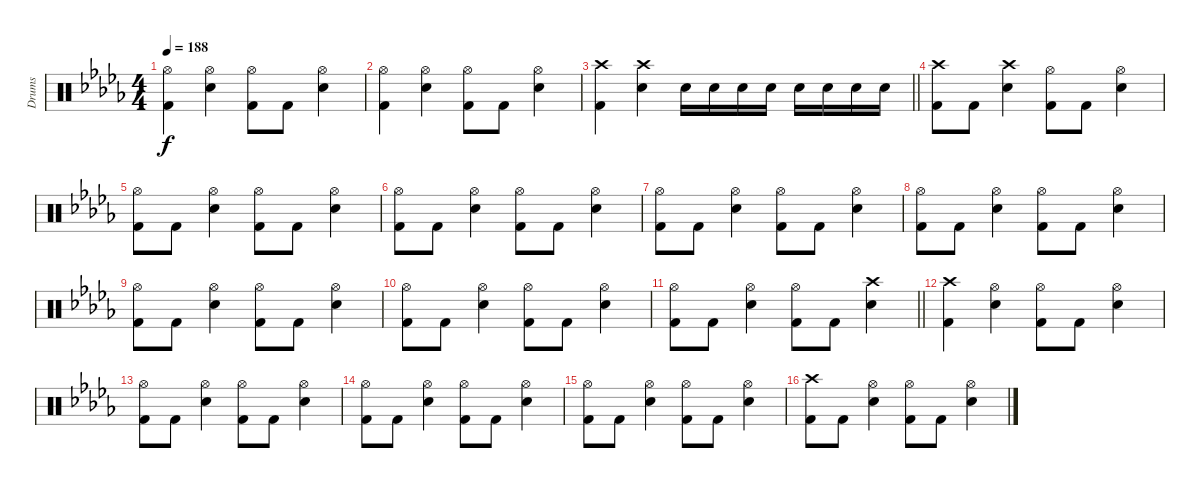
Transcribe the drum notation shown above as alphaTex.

\track ("Drums" "Drums") {instrument percussion}
\staff {score}
\articulation defaults
\ts (4 4)
\tempo 188
\clef neutral
\ks bbminor
("Hi-Hat (open)" "Kick (hit) 2").4{dy f} ("Hi-Hat (open)" "Electric Snare (hit)").4 ("Hi-Hat (open)" "Kick (hit) 2").8 "Kick (hit) 2".8 ("Hi-Hat (open)" "Electric Snare (hit)").4 |
("Hi-Hat (open)" "Kick (hit) 2").4 ("Hi-Hat (open)" "Electric Snare (hit)").4 ("Hi-Hat (open)" "Kick (hit) 2").8 "Kick (hit) 2".8 ("Hi-Hat (open)" "Electric Snare (hit)").4 |
\barLineRight lightlight
("Crash high (hit)" "Kick (hit) 2").4 ("Crash high (hit)" "Electric Snare (hit)").4 "Electric Snare (hit)".16 "Electric Snare (hit)".16 "Electric Snare (hit)".16 "Electric Snare (hit)".16 "Electric Snare (hit)".16 "Electric Snare (hit)".16 "Electric Snare (hit)".16 "Electric Snare (hit)".16 |
("Crash high (hit)" "Kick (hit) 2").8 "Kick (hit) 2".8 ("Crash high (hit)" "Electric Snare (hit)").4 ("Hi-Hat (open)" "Kick (hit) 2").8 "Kick (hit) 2".8 ("Hi-Hat (open)" "Electric Snare (hit)").4 |
("Hi-Hat (open)" "Kick (hit) 2").8 "Kick (hit) 2".8 ("Hi-Hat (open)" "Electric Snare (hit)").4 ("Hi-Hat (open)" "Kick (hit) 2").8 "Kick (hit) 2".8 ("Hi-Hat (open)" "Electric Snare (hit)").4 |
("Hi-Hat (open)" "Kick (hit) 2").8 "Kick (hit) 2".8 ("Hi-Hat (open)" "Electric Snare (hit)").4 ("Hi-Hat (open)" "Kick (hit) 2").8 "Kick (hit) 2".8 ("Hi-Hat (open)" "Electric Snare (hit)").4 |
("Hi-Hat (open)" "Kick (hit) 2").8 "Kick (hit) 2".8 ("Hi-Hat (open)" "Electric Snare (hit)").4 ("Hi-Hat (open)" "Kick (hit) 2").8 "Kick (hit) 2".8 ("Hi-Hat (open)" "Electric Snare (hit)").4 |
("Hi-Hat (open)" "Kick (hit) 2").8 "Kick (hit) 2".8 ("Hi-Hat (open)" "Electric Snare (hit)").4 ("Hi-Hat (open)" "Kick (hit) 2").8 "Kick (hit) 2".8 ("Hi-Hat (open)" "Electric Snare (hit)").4 |
("Hi-Hat (open)" "Kick (hit) 2").8 "Kick (hit) 2".8 ("Hi-Hat (open)" "Electric Snare (hit)").4 ("Hi-Hat (open)" "Kick (hit) 2").8 "Kick (hit) 2".8 ("Hi-Hat (open)" "Electric Snare (hit)").4 |
("Hi-Hat (open)" "Kick (hit) 2").8 "Kick (hit) 2".8 ("Hi-Hat (open)" "Electric Snare (hit)").4 ("Hi-Hat (open)" "Kick (hit) 2").8 "Kick (hit) 2".8 ("Hi-Hat (open)" "Electric Snare (hit)").4 |
\barLineRight lightlight
("Hi-Hat (open)" "Kick (hit) 2").8 "Kick (hit) 2".8 ("Hi-Hat (open)" "Electric Snare (hit)").4 ("Hi-Hat (open)" "Kick (hit) 2").8 "Kick (hit) 2".8 ("Crash high (hit)" "Electric Snare (hit)").4 |
("Crash high (hit)" "Kick (hit) 2").4 ("Hi-Hat (open)" "Electric Snare (hit)").4 ("Hi-Hat (open)" "Kick (hit) 2").8 "Kick (hit) 2".8 ("Hi-Hat (open)" "Electric Snare (hit)").4 |
("Hi-Hat (open)" "Kick (hit) 2").8 "Kick (hit) 2".8 ("Hi-Hat (open)" "Electric Snare (hit)").4 ("Hi-Hat (open)" "Kick (hit) 2").8 "Kick (hit) 2".8 ("Hi-Hat (open)" "Electric Snare (hit)").4 |
("Hi-Hat (open)" "Kick (hit) 2").8 "Kick (hit) 2".8 ("Hi-Hat (open)" "Electric Snare (hit)").4 ("Hi-Hat (open)" "Kick (hit) 2").8 "Kick (hit) 2".8 ("Hi-Hat (open)" "Electric Snare (hit)").4 |
("Hi-Hat (open)" "Kick (hit) 2").8 "Kick (hit) 2".8 ("Hi-Hat (open)" "Electric Snare (hit)").4 ("Hi-Hat (open)" "Kick (hit) 2").8 "Kick (hit) 2".8 ("Hi-Hat (open)" "Electric Snare (hit)").4 |
("Crash high (hit)" "Kick (hit) 2").8 "Kick (hit) 2".8 ("Hi-Hat (open)" "Electric Snare (hit)").4 ("Hi-Hat (open)" "Kick (hit) 2").8 "Kick (hit) 2".8 ("Hi-Hat (open)" "Electric Snare (hit)").4
